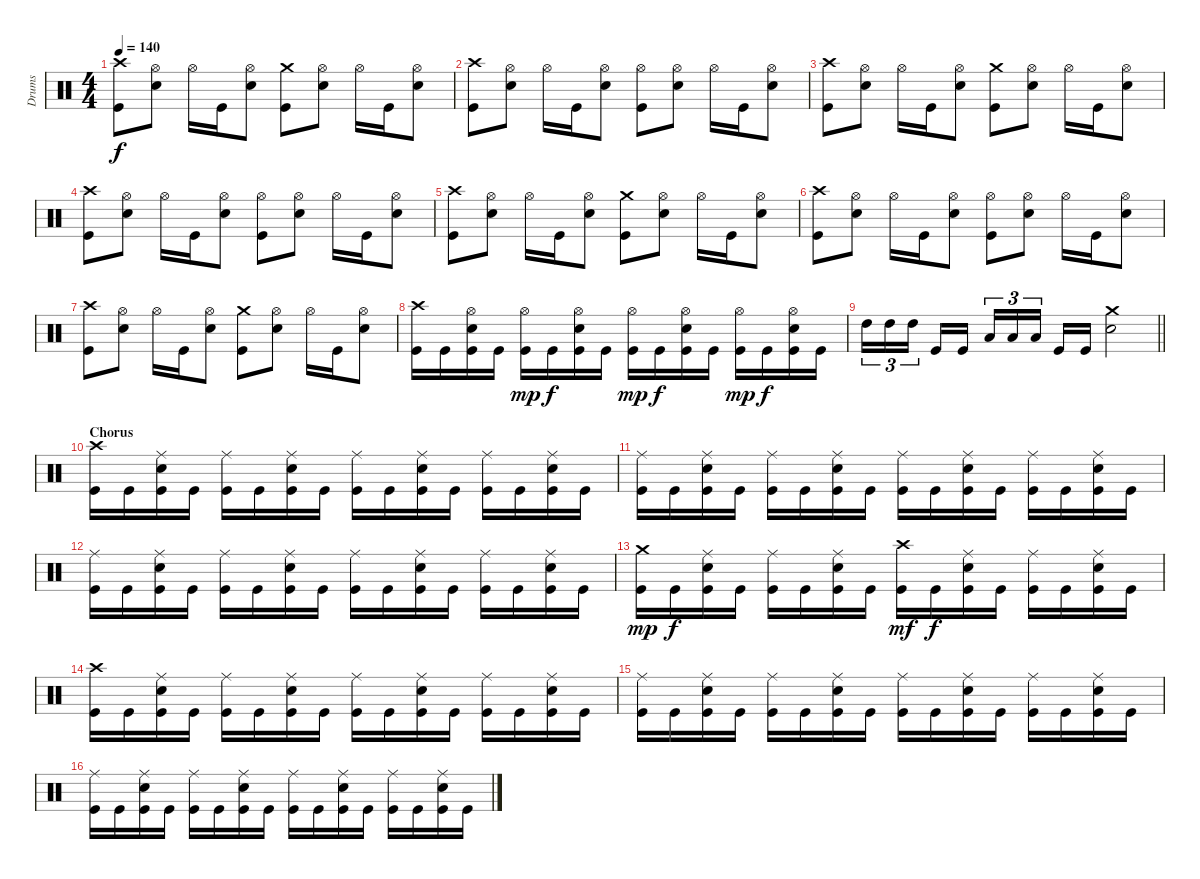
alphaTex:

\track ("Drums" "Drums") {instrument percussion}
\staff {score}
\articulation defaults
\ts (4 4)
\tempo 140
\clef neutral
\ks c
("Crash high (hit)" "Kick (hit)").8{dy f} ("Hi-Hat (open)" "Electric Snare (hit)").8 "Hi-Hat (open)".16 "Kick (hit)".16 ("Hi-Hat (open)" "Electric Snare (hit)").8 ("Crash medium (hit)" "Kick (hit)").8 ("Hi-Hat (open)" "Electric Snare (hit)").8 "Hi-Hat (open)".16 "Kick (hit)".16 ("Hi-Hat (open)" "Electric Snare (hit)").8 |
("Crash high (hit)" "Kick (hit)").8 ("Hi-Hat (open)" "Electric Snare (hit)").8 "Hi-Hat (open)".16 "Kick (hit)".16 ("Hi-Hat (open)" "Electric Snare (hit)").8 ("Hi-Hat (open)" "Kick (hit)").8 ("Hi-Hat (open)" "Electric Snare (hit)").8 "Hi-Hat (open)".16 "Kick (hit)".16 ("Hi-Hat (open)" "Electric Snare (hit)").8 |
("Crash high (hit)" "Kick (hit)").8 ("Hi-Hat (open)" "Electric Snare (hit)").8 "Hi-Hat (open)".16 "Kick (hit)".16 ("Hi-Hat (open)" "Electric Snare (hit)").8 ("Crash medium (hit)" "Kick (hit)").8 ("Hi-Hat (open)" "Electric Snare (hit)").8 "Hi-Hat (open)".16 "Kick (hit)".16 ("Hi-Hat (open)" "Electric Snare (hit)").8 |
("Crash high (hit)" "Kick (hit)").8 ("Hi-Hat (open)" "Electric Snare (hit)").8 "Hi-Hat (open)".16 "Kick (hit)".16 ("Hi-Hat (open)" "Electric Snare (hit)").8 ("Hi-Hat (open)" "Kick (hit)").8 ("Hi-Hat (open)" "Electric Snare (hit)").8 "Hi-Hat (open)".16 "Kick (hit)".16 ("Hi-Hat (open)" "Electric Snare (hit)").8 |
("Crash high (hit)" "Kick (hit)").8 ("Hi-Hat (open)" "Electric Snare (hit)").8 "Hi-Hat (open)".16 "Kick (hit)".16 ("Hi-Hat (open)" "Electric Snare (hit)").8 ("Crash medium (hit)" "Kick (hit)").8 ("Hi-Hat (open)" "Electric Snare (hit)").8 "Hi-Hat (open)".16 "Kick (hit)".16 ("Hi-Hat (open)" "Electric Snare (hit)").8 |
("Crash high (hit)" "Kick (hit)").8 ("Hi-Hat (open)" "Electric Snare (hit)").8 "Hi-Hat (open)".16 "Kick (hit)".16 ("Hi-Hat (open)" "Electric Snare (hit)").8 ("Hi-Hat (open)" "Kick (hit)").8 ("Hi-Hat (open)" "Electric Snare (hit)").8 "Hi-Hat (open)".16 "Kick (hit)".16 ("Hi-Hat (open)" "Electric Snare (hit)").8 |
("Crash high (hit)" "Kick (hit)").8 ("Hi-Hat (open)" "Electric Snare (hit)").8 "Hi-Hat (open)".16 "Kick (hit)".16 ("Hi-Hat (open)" "Electric Snare (hit)").8 ("Crash medium (hit)" "Kick (hit)").8 ("Hi-Hat (open)" "Electric Snare (hit)").8 "Hi-Hat (open)".16 "Kick (hit)".16 ("Hi-Hat (open)" "Electric Snare (hit)").8 |
("Crash high (hit)" "Kick (hit)").16 "Kick (hit)".16 ("Hi-Hat (open)" "Electric Snare (hit)" "Kick (hit)").16 "Kick (hit)".16 ("Hi-Hat (open)" "Kick (hit)").16{dy mp} "Kick (hit)".16{dy f} ("Hi-Hat (open)" "Electric Snare (hit)" "Kick (hit)").16 "Kick (hit)".16 ("Hi-Hat (open)" "Kick (hit)").16{dy mp} "Kick (hit)".16{dy f} ("Hi-Hat (open)" "Electric Snare (hit)" "Kick (hit)").16 "Kick (hit)".16 ("Hi-Hat (open)" "Kick (hit)").16{dy mp} "Kick (hit)".16{dy f} ("Hi-Hat (open)" "Electric Snare (hit)" "Kick (hit)").16 "Kick (hit)".16 |
\barLineRight lightlight "High Tom (hit)".16{tu (3 2)} "High Tom (hit)".16{tu (3 2)} "High Tom (hit)".16{tu (3 2)} "Kick (hit)".16 "Kick (hit)".16 "Low Tom (hit)".16{tu (3 2)} "Low Tom (hit)".16{tu (3 2)} "Low Tom (hit)".16{tu (3 2)} "Kick (hit)".16 "Kick (hit)".16
("Crash medium (hit)" "Electric Snare (hit)").2 |
\section ("" "Chorus")
("Crash high (hit)" "Kick (hit)").16 "Kick (hit)".16 ("Ride (middle)" "Electric Snare (hit)" "Kick (hit)").16 "Kick (hit)".16 ("Ride (middle)" "Kick (hit)").16 "Kick (hit)".16 ("Ride (middle)" "Electric Snare (hit)" "Kick (hit)").16 "Kick (hit)".16 ("Ride (middle)" "Kick (hit)").16 "Kick (hit)".16 ("Ride (middle)" "Electric Snare (hit)" "Kick (hit)").16 "Kick (hit)".16 ("Ride (middle)" "Kick (hit)").16 "Kick (hit)".16 ("Ride (middle)" "Electric Snare (hit)" "Kick (hit)").16 "Kick (hit)".16 |
("Ride (middle)" "Kick (hit)").16 "Kick (hit)".16 ("Ride (middle)" "Electric Snare (hit)" "Kick (hit)").16 "Kick (hit)".16 ("Ride (middle)" "Kick (hit)").16 "Kick (hit)".16 ("Ride (middle)" "Electric Snare (hit)" "Kick (hit)").16 "Kick (hit)".16 ("Ride (middle)" "Kick (hit)").16 "Kick (hit)".16 ("Ride (middle)" "Electric Snare (hit)" "Kick (hit)").16 "Kick (hit)".16 ("Ride (middle)" "Kick (hit)").16 "Kick (hit)".16 ("Ride (middle)" "Electric Snare (hit)" "Kick (hit)").16 "Kick (hit)".16 |
("Ride (middle)" "Kick (hit)").16 "Kick (hit)".16 ("Ride (middle)" "Electric Snare (hit)" "Kick (hit)").16 "Kick (hit)".16 ("Ride (middle)" "Kick (hit)").16 "Kick (hit)".16 ("Ride (middle)" "Electric Snare (hit)" "Kick (hit)").16 "Kick (hit)".16 ("Ride (middle)" "Kick (hit)").16 "Kick (hit)".16 ("Ride (middle)" "Electric Snare (hit)" "Kick (hit)").16 "Kick (hit)".16 ("Ride (middle)" "Kick (hit)").16 "Kick (hit)".16 ("Ride (middle)" "Electric Snare (hit)" "Kick (hit)").16 "Kick (hit)".16 |
("Crash medium (hit)" "Kick (hit)").16{dy mp} "Kick (hit)".16{dy f} ("Ride (middle)" "Electric Snare (hit)" "Kick (hit)").16 "Kick (hit)".16 ("Ride (middle)" "Kick (hit)").16 "Kick (hit)".16 ("Ride (middle)" "Electric Snare (hit)" "Kick (hit)").16 "Kick (hit)".16 ("Crash high (hit)" "Kick (hit)").16{dy mf} "Kick (hit)".16{dy f} ("Ride (middle)" "Electric Snare (hit)" "Kick (hit)").16 "Kick (hit)".16 ("Ride (middle)" "Kick (hit)").16 "Kick (hit)".16 ("Ride (middle)" "Electric Snare (hit)" "Kick (hit)").16 "Kick (hit)".16 |
("Crash high (hit)" "Kick (hit)").16 "Kick (hit)".16 ("Ride (middle)" "Electric Snare (hit)" "Kick (hit)").16 "Kick (hit)".16 ("Ride (middle)" "Kick (hit)").16 "Kick (hit)".16 ("Ride (middle)" "Electric Snare (hit)" "Kick (hit)").16 "Kick (hit)".16 ("Ride (middle)" "Kick (hit)").16 "Kick (hit)".16 ("Ride (middle)" "Electric Snare (hit)" "Kick (hit)").16 "Kick (hit)".16 ("Ride (middle)" "Kick (hit)").16 "Kick (hit)".16 ("Ride (middle)" "Electric Snare (hit)" "Kick (hit)").16 "Kick (hit)".16 |
("Ride (middle)" "Kick (hit)").16 "Kick (hit)".16 ("Ride (middle)" "Electric Snare (hit)" "Kick (hit)").16 "Kick (hit)".16 ("Ride (middle)" "Kick (hit)").16 "Kick (hit)".16 ("Ride (middle)" "Electric Snare (hit)" "Kick (hit)").16 "Kick (hit)".16 ("Ride (middle)" "Kick (hit)").16 "Kick (hit)".16 ("Ride (middle)" "Electric Snare (hit)" "Kick (hit)").16 "Kick (hit)".16 ("Ride (middle)" "Kick (hit)").16 "Kick (hit)".16 ("Ride (middle)" "Electric Snare (hit)" "Kick (hit)").16 "Kick (hit)".16 |
("Ride (middle)" "Kick (hit)").16 "Kick (hit)".16 ("Ride (middle)" "Electric Snare (hit)" "Kick (hit)").16 "Kick (hit)".16 ("Ride (middle)" "Kick (hit)").16 "Kick (hit)".16 ("Ride (middle)" "Electric Snare (hit)" "Kick (hit)").16 "Kick (hit)".16 ("Ride (middle)" "Kick (hit)").16 "Kick (hit)".16 ("Ride (middle)" "Electric Snare (hit)" "Kick (hit)").16 "Kick (hit)".16 ("Ride (middle)" "Kick (hit)").16 "Kick (hit)".16 ("Ride (middle)" "Electric Snare (hit)" "Kick (hit)").16 "Kick (hit)".16
